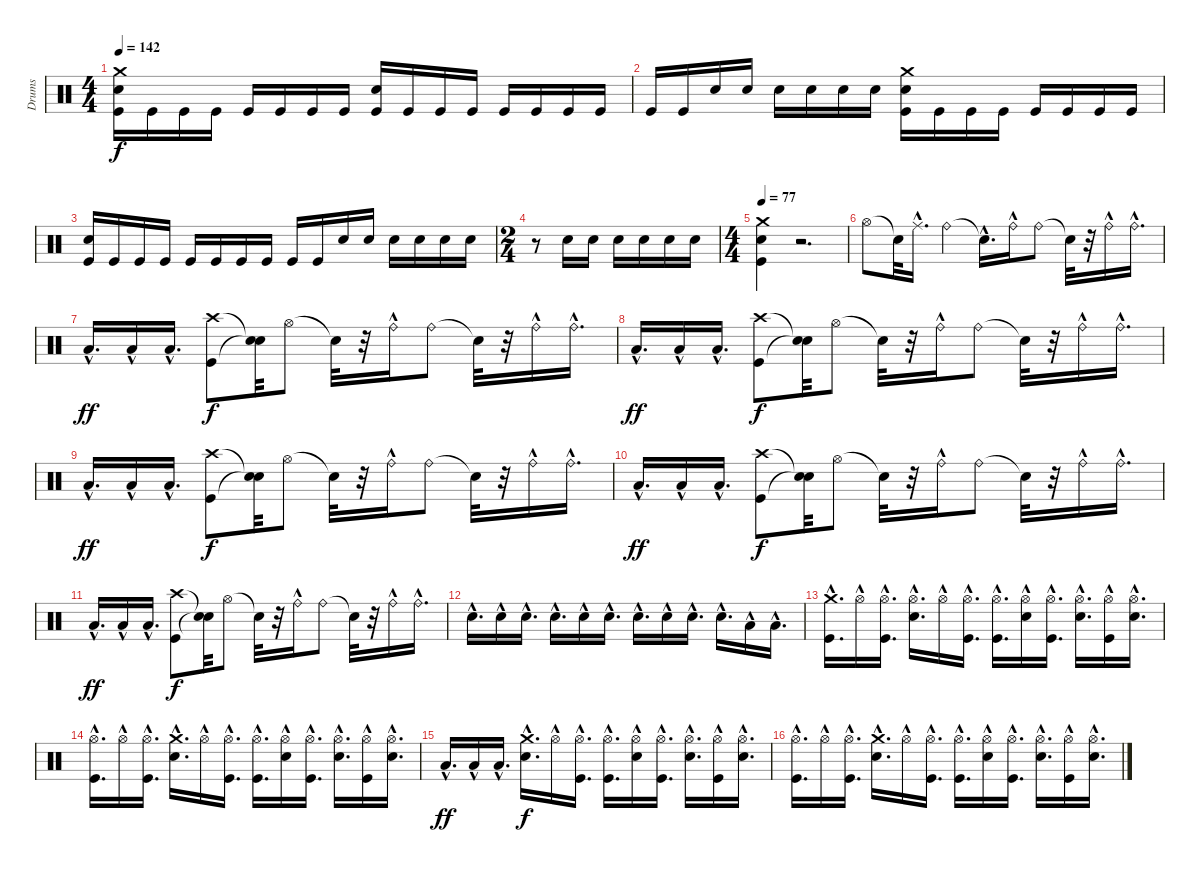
\track ("Drums" "Drums") {instrument percussion}
\staff {score}
\articulation defaults
\ts (4 4)
\tempo 142
\clef neutral
\ks c
("Crash medium (hit)" "Snare (hit) 2" "Kick (hit)").16{dy f} "Kick (hit)".16 "Kick (hit)".16 "Kick (hit)".16 "Kick (hit)".16 "Kick (hit)".16 "Kick (hit)".16 "Kick (hit)".16 ("Snare (hit) 2" "Kick (hit)").16 "Kick (hit)".16 "Kick (hit)".16 "Kick (hit)".16 "Kick (hit)".16 "Kick (hit)".16 "Kick (hit)".16 "Kick (hit)".16 |
"Kick (hit)".16 "Kick (hit)".16 "Snare (hit) 2".16 "Snare (hit) 2".16 "Snare (hit) 2".16 "Snare (hit) 2".16 "Snare (hit) 2".16 "Snare (hit) 2".16 ("Crash medium (hit)" "Snare (hit) 2" "Kick (hit)").16 "Kick (hit)".16 "Kick (hit)".16 "Kick (hit)".16 "Kick (hit)".16 "Kick (hit)".16 "Kick (hit)".16 "Kick (hit)".16 |
("Snare (hit) 2" "Kick (hit)").16 "Kick (hit)".16 "Kick (hit)".16 "Kick (hit)".16 "Kick (hit)".16 "Kick (hit)".16 "Kick (hit)".16 "Kick (hit)".16 "Kick (hit)".16 "Kick (hit)".16 "Snare (hit) 2".16 "Snare (hit) 2".16 "Snare (hit) 2".16 "Snare (hit) 2".16 "Snare (hit) 2".16 "Snare (hit) 2".16 |
\ts (2 4)
r.8 "Snare (hit) 2".16 "Snare (hit) 2".16 "Snare (hit) 2".16 "Snare (hit) 2".16 "Snare (hit) 2".16 "Snare (hit) 2".16 |
\ts (4 4)
\tempo 77
("Crash medium (hit)" "Snare (hit) 2" "Kick (hit)").4 r.2{d} |
"Hi-Hat (open)".8 "Snare (hit)"{t}.32 "Ride (middle)"{hac}.16{d} "Ride (bell)".4 "Snare (hit)"{hac t}.16{d} "Ride (bell)"{hac}.16 "Ride (bell)".8 "Snare (hit)"{t}.32 r.32 "Ride (bell)"{hac}.16 "Ride (bell)"{hac}.16{d} |
"Low Floor Tom (hit)"{hac}.16{d dy ff} "Low Floor Tom (hit)"{hac}.16 "Low Floor Tom (hit)"{hac}.16{d} ("Crash high (hit)" "Kick (hit)").8{dy f} ("Snare (hit)"{t} "Snare (hit)"{t}).32 "Hi-Hat (open)".8 "Snare (hit)"{t}.32 r.32 "Ride (bell)"{hac}.16 "Ride (bell)".8 "Snare (hit)"{t}.32 r.32 "Ride (bell)"{hac}.16 "Ride (bell)"{hac}.16{d} |
"Low Floor Tom (hit)"{hac}.16{d dy ff} "Low Floor Tom (hit)"{hac}.16 "Low Floor Tom (hit)"{hac}.16{d} ("Crash high (hit)" "Kick (hit)").8{dy f} ("Snare (hit)"{t} "Snare (hit)"{t}).32 "Hi-Hat (open)".8 "Snare (hit)"{t}.32 r.32 "Ride (bell)"{hac}.16 "Ride (bell)".8 "Snare (hit)"{t}.32 r.32 "Ride (bell)"{hac}.16 "Ride (bell)"{hac}.16{d} |
"Low Floor Tom (hit)"{hac}.16{d dy ff} "Low Floor Tom (hit)"{hac}.16 "Low Floor Tom (hit)"{hac}.16{d} ("Crash high (hit)" "Kick (hit)").8{dy f} ("Snare (hit)"{t} "Snare (hit)"{t}).32 "Hi-Hat (open)".8 "Snare (hit)"{t}.32 r.32 "Ride (bell)"{hac}.16 "Ride (bell)".8 "Snare (hit)"{t}.32 r.32 "Ride (bell)"{hac}.16 "Ride (bell)"{hac}.16{d} |
"Low Floor Tom (hit)"{hac}.16{d dy ff} "Low Floor Tom (hit)"{hac}.16 "Low Floor Tom (hit)"{hac}.16{d} ("Crash high (hit)" "Kick (hit)").8{dy f} ("Snare (hit)"{t} "Snare (hit)"{t}).32 "Hi-Hat (open)".8 "Snare (hit)"{t}.32 r.32 "Ride (bell)"{hac}.16 "Ride (bell)".8 "Snare (hit)"{t}.32 r.32 "Ride (bell)"{hac}.16 "Ride (bell)"{hac}.16{d} |
"Low Floor Tom (hit)"{hac}.16{d dy ff} "Low Floor Tom (hit)"{hac}.16 "Low Floor Tom (hit)"{hac}.16{d} ("Crash high (hit)" "Kick (hit)").8{dy f} ("Snare (hit)"{t} "Snare (hit)"{t}).32 "Hi-Hat (open)".8 "Snare (hit)"{t}.32 r.32 "Ride (bell)"{hac}.16 "Ride (bell)".8 "Snare (hit)"{t}.32 r.32 "Ride (bell)"{hac}.16 "Ride (bell)"{hac}.16{d} |
"Snare (hit) 2"{hac}.16{d} "Snare (hit) 2"{hac}.16 "Snare (hit) 2"{hac}.16{d} "Snare (hit) 2"{hac}.16{d} "Snare (hit) 2"{hac}.16 "Snare (hit) 2"{hac}.16{d} "Snare (hit) 2"{hac}.16{d} "Snare (hit) 2"{hac}.16 "Snare (hit) 2"{hac}.16{d} "Snare (hit) 2"{hac}.16{d} "Low Tom (hit)"{hac}.16 "Low Floor Tom (hit)"{hac}.16{d} |
("Crash medium (hit)"{hac} "Kick (hit)"{hac}).16{d} "Hi-Hat (open)"{hac}.16 ("Hi-Hat (open)"{hac} "Kick (hit)"{hac}).16{d} ("Hi-Hat (open)"{hac} "Snare (hit) 2"{hac}).16{d} "Hi-Hat (open)"{hac}.16 ("Hi-Hat (open)"{hac} "Kick (hit)"{hac}).16{d} ("Hi-Hat (open)"{hac} "Kick (hit)"{hac}).16{d} ("Hi-Hat (open)"{hac} "Snare (hit) 2"{hac}).16 ("Hi-Hat (open)"{hac} "Kick (hit)"{hac}).16{d} ("Hi-Hat (open)"{hac} "Snare (hit) 2"{hac}).16{d} ("Hi-Hat (open)"{hac} "Kick (hit)"{hac}).16 ("Hi-Hat (open)"{hac} "Snare (hit) 2"{hac}).16{d} |
("Hi-Hat (open)"{hac} "Kick (hit)"{hac}).16{d} "Hi-Hat (open)"{hac}.16 ("Hi-Hat (open)"{hac} "Kick (hit)"{hac}).16{d} ("Crash medium (hit)" "Snare (hit) 2"{hac}).16{d} "Hi-Hat (open)"{hac}.16 ("Hi-Hat (open)"{hac} "Kick (hit)"{hac}).16{d} ("Hi-Hat (open)"{hac} "Kick (hit)"{hac}).16{d} ("Hi-Hat (open)"{hac} "Snare (hit) 2"{hac}).16 ("Hi-Hat (open)"{hac} "Kick (hit)"{hac}).16{d} ("Hi-Hat (open)"{hac} "Snare (hit) 2"{hac}).16{d} ("Hi-Hat (open)"{hac} "Kick (hit)"{hac}).16 ("Hi-Hat (open)"{hac} "Snare (hit) 2"{hac}).16{d} |
"Low Floor Tom (hit)"{hac}.16{d dy ff} "Low Floor Tom (hit)"{hac}.16 "Low Floor Tom (hit)"{hac}.16{d} ("Crash medium (hit)" "Snare (hit) 2"{hac}).16{d dy f} "Hi-Hat (open)"{hac}.16 ("Hi-Hat (open)"{hac} "Kick (hit)"{hac}).16{d} ("Hi-Hat (open)"{hac} "Kick (hit)"{hac}).16{d} ("Hi-Hat (open)"{hac} "Snare (hit) 2"{hac}).16 ("Hi-Hat (open)"{hac} "Kick (hit)"{hac}).16{d} ("Hi-Hat (open)"{hac} "Snare (hit) 2"{hac}).16{d} ("Hi-Hat (open)"{hac} "Kick (hit)"{hac}).16 ("Hi-Hat (open)"{hac} "Snare (hit) 2"{hac}).16{d} |
("Hi-Hat (open)"{hac} "Kick (hit)"{hac}).16{d} "Hi-Hat (open)"{hac}.16 ("Hi-Hat (open)"{hac} "Kick (hit)"{hac}).16{d} ("Crash medium (hit)" "Snare (hit) 2"{hac}).16{d} "Hi-Hat (open)"{hac}.16 ("Hi-Hat (open)"{hac} "Kick (hit)"{hac}).16{d} ("Hi-Hat (open)"{hac} "Kick (hit)"{hac}).16{d} ("Hi-Hat (open)"{hac} "Snare (hit) 2"{hac}).16 ("Hi-Hat (open)"{hac} "Kick (hit)"{hac}).16{d} ("Hi-Hat (open)"{hac} "Snare (hit) 2"{hac}).16{d} ("Hi-Hat (open)"{hac} "Kick (hit)"{hac}).16 ("Hi-Hat (open)"{hac} "Snare (hit) 2"{hac}).16{d}
